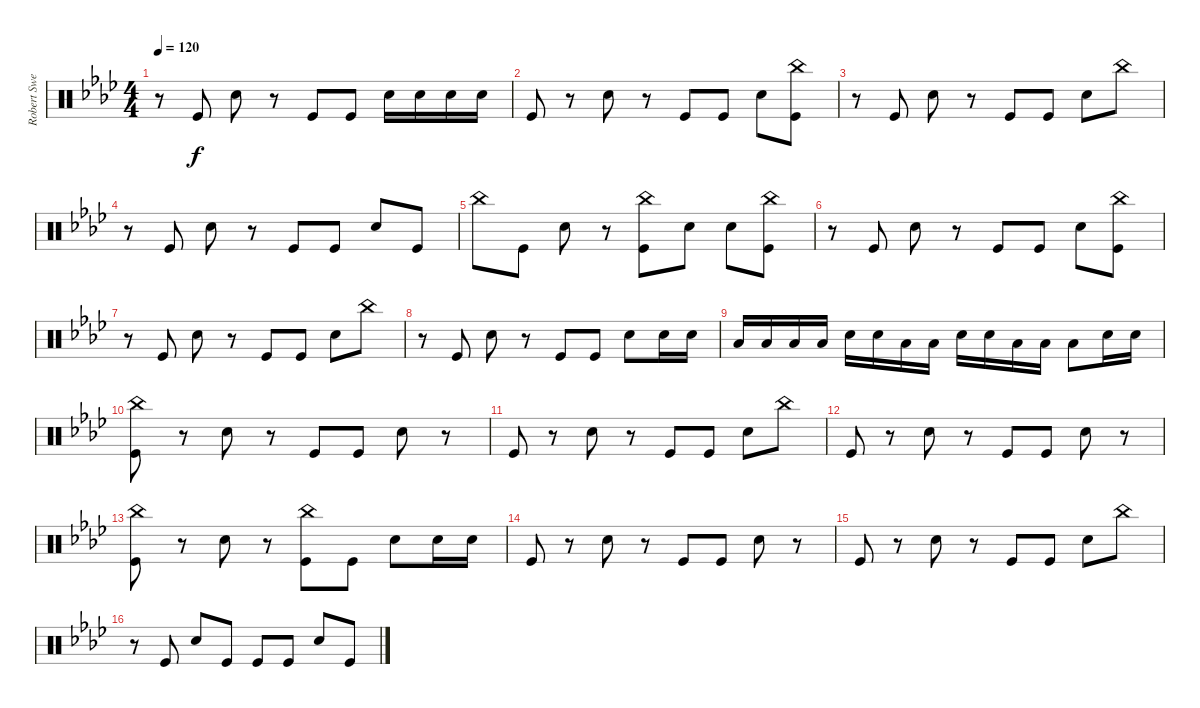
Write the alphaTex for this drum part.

\track ("Robert Sweet" "Robert Swe") {instrument percussion}
\staff {score}
\articulation defaults
\ts (4 4)
\tempo 120
\clef neutral
\ks ab
r.8{dy f} "Kick (hit)".8 "Snare (hit) 2".8 r.8 "Kick (hit)".8 "Kick (hit)".8 "Snare (hit) 2".16 "Snare (hit) 2".16 "Snare (hit) 2".16 "Snare (hit) 2".16 |
"Kick (hit)".8 r.8 "Snare (hit) 2".8 r.8 "Kick (hit)".8 "Kick (hit)".8 "Snare (hit) 2".8 ("Kick (hit)" "China (hit)").8 |
r.8 "Kick (hit)".8 "Snare (hit) 2".8 r.8 "Kick (hit)".8 "Kick (hit)".8 "Snare (hit) 2".8 "China (hit)".8 |
r.8 "Kick (hit)".8 "Snare (hit) 2".8 r.8 "Kick (hit)".8 "Kick (hit)".8 "Snare (hit) 2".8 "Kick (hit)".8 |
"China (hit)".8 "Kick (hit)".8 "Snare (hit) 2".8 r.8 ("Kick (hit)" "China (hit)").8 "Snare (hit) 2".8 "Snare (hit) 2".8 ("Kick (hit)" "China (hit)").8 |
r.8 "Kick (hit)".8 "Snare (hit) 2".8 r.8 "Kick (hit)".8 "Kick (hit)".8 "Snare (hit) 2".8 ("Kick (hit)" "China (hit)").8 |
r.8 "Kick (hit)".8 "Snare (hit) 2".8 r.8 "Kick (hit)".8 "Kick (hit)".8 "Snare (hit) 2".8 "China (hit)".8 |
r.8 "Kick (hit)".8 "Snare (hit) 2".8 r.8 "Kick (hit)".8 "Kick (hit)".8 "Snare (hit) 2".8 "Snare (hit) 2".16 "Snare (hit) 2".16 |
"Low Floor Tom (hit)".16 "Low Floor Tom (hit)".16 "Low Floor Tom (hit)".16 "Low Floor Tom (hit)".16 "Snare (hit) 2".16 "Snare (hit) 2".16 "Low Floor Tom (hit)".16 "Low Floor Tom (hit)".16 "Snare (hit) 2".16 "Snare (hit) 2".16 "Low Floor Tom (hit)".16 "Low Floor Tom (hit)".16 "Low Floor Tom (hit)".8 "Snare (hit) 2".16 "Snare (hit) 2".16 |
("Kick (hit)" "China (hit)").8 r.8 "Snare (hit) 2".8 r.8 "Kick (hit)".8 "Kick (hit)".8 "Snare (hit) 2".8 r.8 |
"Kick (hit)".8 r.8 "Snare (hit) 2".8 r.8 "Kick (hit)".8 "Kick (hit)".8 "Snare (hit) 2".8 "China (hit)".8 |
"Kick (hit)".8 r.8 "Snare (hit) 2".8 r.8 "Kick (hit)".8 "Kick (hit)".8 "Snare (hit) 2".8 r.8 |
("Kick (hit)" "China (hit)").8 r.8 "Snare (hit) 2".8 r.8 ("Kick (hit)" "China (hit)").8 "Kick (hit)".8 "Snare (hit) 2".8 "Snare (hit) 2".16 "Snare (hit) 2".16 |
"Kick (hit)".8 r.8 "Snare (hit) 2".8 r.8 "Kick (hit)".8 "Kick (hit)".8 "Snare (hit) 2".8 r.8 |
"Kick (hit)".8 r.8 "Snare (hit) 2".8 r.8 "Kick (hit)".8 "Kick (hit)".8 "Snare (hit) 2".8 "China (hit)".8 |
r.8 "Kick (hit)".8 "Snare (hit) 2".8 "Kick (hit)".8 "Kick (hit)".8 "Kick (hit)".8 "Snare (hit) 2".8 "Kick (hit)".8
